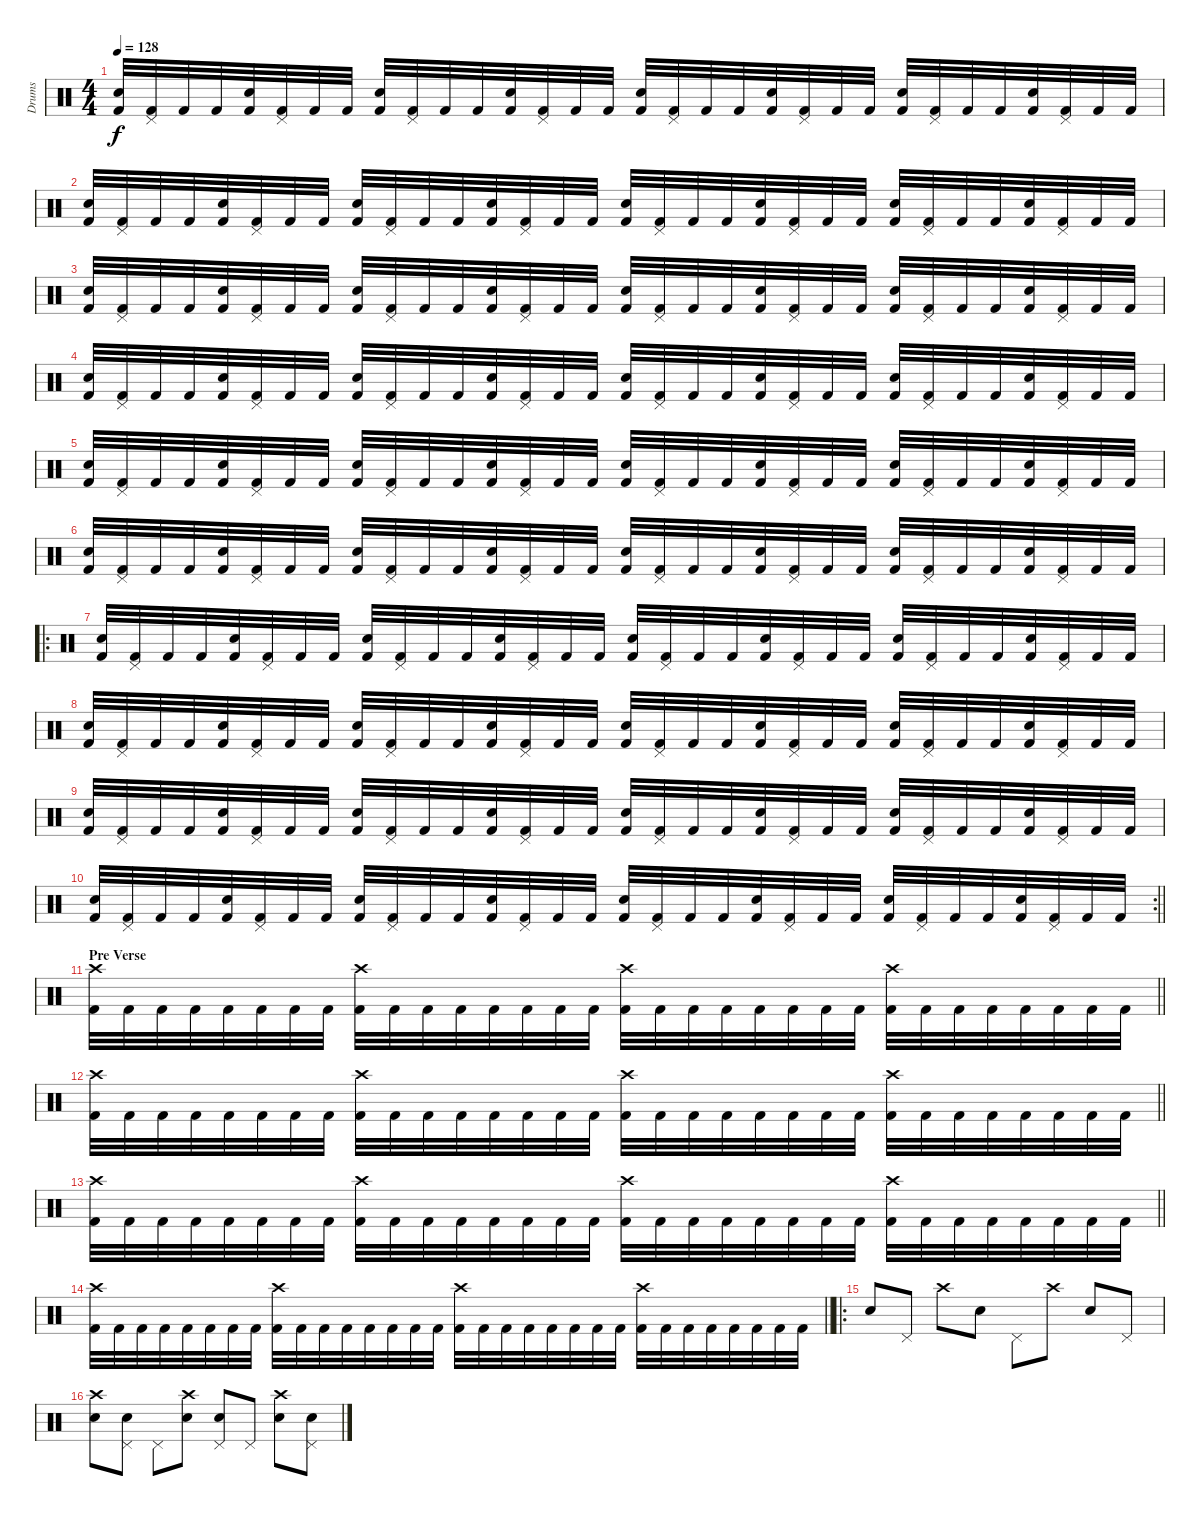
\track ("Drums" "Drums") {instrument percussion}
\staff {score}
\articulation defaults
\ts (4 4)
\tempo 128
\clef neutral
\ks c
("Kick (hit) 2" "Electric Snare (hit)").32{dy f} ("Kick (hit) 2" "Pedal Hi-Hat (hit)").32 "Kick (hit) 2".32 "Kick (hit) 2".32 ("Kick (hit) 2" "Electric Snare (hit)").32 ("Kick (hit) 2" "Pedal Hi-Hat (hit)").32 "Kick (hit) 2".32 "Kick (hit) 2".32 ("Kick (hit) 2" "Electric Snare (hit)").32 ("Kick (hit) 2" "Pedal Hi-Hat (hit)").32 "Kick (hit) 2".32 "Kick (hit) 2".32 ("Kick (hit) 2" "Electric Snare (hit)").32 ("Kick (hit) 2" "Pedal Hi-Hat (hit)").32 "Kick (hit) 2".32 "Kick (hit) 2".32 ("Kick (hit) 2" "Electric Snare (hit)").32 ("Kick (hit) 2" "Pedal Hi-Hat (hit)").32 "Kick (hit) 2".32 "Kick (hit) 2".32 ("Kick (hit) 2" "Electric Snare (hit)").32 ("Kick (hit) 2" "Pedal Hi-Hat (hit)").32 "Kick (hit) 2".32 "Kick (hit) 2".32 ("Kick (hit) 2" "Electric Snare (hit)").32 ("Kick (hit) 2" "Pedal Hi-Hat (hit)").32 "Kick (hit) 2".32 "Kick (hit) 2".32 ("Kick (hit) 2" "Electric Snare (hit)").32 ("Kick (hit) 2" "Pedal Hi-Hat (hit)").32 "Kick (hit) 2".32 "Kick (hit) 2".32 |
("Kick (hit) 2" "Electric Snare (hit)").32 ("Kick (hit) 2" "Pedal Hi-Hat (hit)").32 "Kick (hit) 2".32 "Kick (hit) 2".32 ("Kick (hit) 2" "Electric Snare (hit)").32 ("Kick (hit) 2" "Pedal Hi-Hat (hit)").32 "Kick (hit) 2".32 "Kick (hit) 2".32 ("Kick (hit) 2" "Electric Snare (hit)").32 ("Kick (hit) 2" "Pedal Hi-Hat (hit)").32 "Kick (hit) 2".32 "Kick (hit) 2".32 ("Kick (hit) 2" "Electric Snare (hit)").32 ("Kick (hit) 2" "Pedal Hi-Hat (hit)").32 "Kick (hit) 2".32 "Kick (hit) 2".32 ("Kick (hit) 2" "Electric Snare (hit)").32 ("Kick (hit) 2" "Pedal Hi-Hat (hit)").32 "Kick (hit) 2".32 "Kick (hit) 2".32 ("Kick (hit) 2" "Electric Snare (hit)").32 ("Kick (hit) 2" "Pedal Hi-Hat (hit)").32 "Kick (hit) 2".32 "Kick (hit) 2".32 ("Kick (hit) 2" "Electric Snare (hit)").32 ("Kick (hit) 2" "Pedal Hi-Hat (hit)").32 "Kick (hit) 2".32 "Kick (hit) 2".32 ("Kick (hit) 2" "Electric Snare (hit)").32 ("Kick (hit) 2" "Pedal Hi-Hat (hit)").32 "Kick (hit) 2".32 "Kick (hit) 2".32 |
("Kick (hit) 2" "Electric Snare (hit)").32 ("Kick (hit) 2" "Pedal Hi-Hat (hit)").32 "Kick (hit) 2".32 "Kick (hit) 2".32 ("Kick (hit) 2" "Electric Snare (hit)").32 ("Kick (hit) 2" "Pedal Hi-Hat (hit)").32 "Kick (hit) 2".32 "Kick (hit) 2".32 ("Kick (hit) 2" "Electric Snare (hit)").32 ("Kick (hit) 2" "Pedal Hi-Hat (hit)").32 "Kick (hit) 2".32 "Kick (hit) 2".32 ("Kick (hit) 2" "Electric Snare (hit)").32 ("Kick (hit) 2" "Pedal Hi-Hat (hit)").32 "Kick (hit) 2".32 "Kick (hit) 2".32 ("Kick (hit) 2" "Electric Snare (hit)").32 ("Kick (hit) 2" "Pedal Hi-Hat (hit)").32 "Kick (hit) 2".32 "Kick (hit) 2".32 ("Kick (hit) 2" "Electric Snare (hit)").32 ("Kick (hit) 2" "Pedal Hi-Hat (hit)").32 "Kick (hit) 2".32 "Kick (hit) 2".32 ("Kick (hit) 2" "Electric Snare (hit)").32 ("Kick (hit) 2" "Pedal Hi-Hat (hit)").32 "Kick (hit) 2".32 "Kick (hit) 2".32 ("Kick (hit) 2" "Electric Snare (hit)").32 ("Kick (hit) 2" "Pedal Hi-Hat (hit)").32 "Kick (hit) 2".32 "Kick (hit) 2".32 |
("Kick (hit) 2" "Electric Snare (hit)").32 ("Kick (hit) 2" "Pedal Hi-Hat (hit)").32 "Kick (hit) 2".32 "Kick (hit) 2".32 ("Kick (hit) 2" "Electric Snare (hit)").32 ("Kick (hit) 2" "Pedal Hi-Hat (hit)").32 "Kick (hit) 2".32 "Kick (hit) 2".32 ("Kick (hit) 2" "Electric Snare (hit)").32 ("Kick (hit) 2" "Pedal Hi-Hat (hit)").32 "Kick (hit) 2".32 "Kick (hit) 2".32 ("Kick (hit) 2" "Electric Snare (hit)").32 ("Kick (hit) 2" "Pedal Hi-Hat (hit)").32 "Kick (hit) 2".32 "Kick (hit) 2".32 ("Kick (hit) 2" "Electric Snare (hit)").32 ("Kick (hit) 2" "Pedal Hi-Hat (hit)").32 "Kick (hit) 2".32 "Kick (hit) 2".32 ("Kick (hit) 2" "Electric Snare (hit)").32 ("Kick (hit) 2" "Pedal Hi-Hat (hit)").32 "Kick (hit) 2".32 "Kick (hit) 2".32 ("Kick (hit) 2" "Electric Snare (hit)").32 ("Kick (hit) 2" "Pedal Hi-Hat (hit)").32 "Kick (hit) 2".32 "Kick (hit) 2".32 ("Kick (hit) 2" "Electric Snare (hit)").32 ("Kick (hit) 2" "Pedal Hi-Hat (hit)").32 "Kick (hit) 2".32 "Kick (hit) 2".32 |
("Kick (hit) 2" "Electric Snare (hit)").32 ("Kick (hit) 2" "Pedal Hi-Hat (hit)").32 "Kick (hit) 2".32 "Kick (hit) 2".32 ("Kick (hit) 2" "Electric Snare (hit)").32 ("Kick (hit) 2" "Pedal Hi-Hat (hit)").32 "Kick (hit) 2".32 "Kick (hit) 2".32 ("Kick (hit) 2" "Electric Snare (hit)").32 ("Kick (hit) 2" "Pedal Hi-Hat (hit)").32 "Kick (hit) 2".32 "Kick (hit) 2".32 ("Kick (hit) 2" "Electric Snare (hit)").32 ("Kick (hit) 2" "Pedal Hi-Hat (hit)").32 "Kick (hit) 2".32 "Kick (hit) 2".32 ("Kick (hit) 2" "Electric Snare (hit)").32 ("Kick (hit) 2" "Pedal Hi-Hat (hit)").32 "Kick (hit) 2".32 "Kick (hit) 2".32 ("Kick (hit) 2" "Electric Snare (hit)").32 ("Kick (hit) 2" "Pedal Hi-Hat (hit)").32 "Kick (hit) 2".32 "Kick (hit) 2".32 ("Kick (hit) 2" "Electric Snare (hit)").32 ("Kick (hit) 2" "Pedal Hi-Hat (hit)").32 "Kick (hit) 2".32 "Kick (hit) 2".32 ("Kick (hit) 2" "Electric Snare (hit)").32 ("Kick (hit) 2" "Pedal Hi-Hat (hit)").32 "Kick (hit) 2".32 "Kick (hit) 2".32 |
("Kick (hit) 2" "Electric Snare (hit)").32 ("Kick (hit) 2" "Pedal Hi-Hat (hit)").32 "Kick (hit) 2".32 "Kick (hit) 2".32 ("Kick (hit) 2" "Electric Snare (hit)").32 ("Kick (hit) 2" "Pedal Hi-Hat (hit)").32 "Kick (hit) 2".32 "Kick (hit) 2".32 ("Kick (hit) 2" "Electric Snare (hit)").32 ("Kick (hit) 2" "Pedal Hi-Hat (hit)").32 "Kick (hit) 2".32 "Kick (hit) 2".32 ("Kick (hit) 2" "Electric Snare (hit)").32 ("Kick (hit) 2" "Pedal Hi-Hat (hit)").32 "Kick (hit) 2".32 "Kick (hit) 2".32 ("Kick (hit) 2" "Electric Snare (hit)").32 ("Kick (hit) 2" "Pedal Hi-Hat (hit)").32 "Kick (hit) 2".32 "Kick (hit) 2".32 ("Kick (hit) 2" "Electric Snare (hit)").32 ("Kick (hit) 2" "Pedal Hi-Hat (hit)").32 "Kick (hit) 2".32 "Kick (hit) 2".32 ("Kick (hit) 2" "Electric Snare (hit)").32 ("Kick (hit) 2" "Pedal Hi-Hat (hit)").32 "Kick (hit) 2".32 "Kick (hit) 2".32 ("Kick (hit) 2" "Electric Snare (hit)").32 ("Kick (hit) 2" "Pedal Hi-Hat (hit)").32 "Kick (hit) 2".32 "Kick (hit) 2".32 |
\ro
("Kick (hit) 2" "Electric Snare (hit)").32 ("Kick (hit) 2" "Pedal Hi-Hat (hit)").32 "Kick (hit) 2".32 "Kick (hit) 2".32 ("Kick (hit) 2" "Electric Snare (hit)").32 ("Kick (hit) 2" "Pedal Hi-Hat (hit)").32 "Kick (hit) 2".32 "Kick (hit) 2".32 ("Kick (hit) 2" "Electric Snare (hit)").32 ("Kick (hit) 2" "Pedal Hi-Hat (hit)").32 "Kick (hit) 2".32 "Kick (hit) 2".32 ("Kick (hit) 2" "Electric Snare (hit)").32 ("Kick (hit) 2" "Pedal Hi-Hat (hit)").32 "Kick (hit) 2".32 "Kick (hit) 2".32 ("Kick (hit) 2" "Electric Snare (hit)").32 ("Kick (hit) 2" "Pedal Hi-Hat (hit)").32 "Kick (hit) 2".32 "Kick (hit) 2".32 ("Kick (hit) 2" "Electric Snare (hit)").32 ("Kick (hit) 2" "Pedal Hi-Hat (hit)").32 "Kick (hit) 2".32 "Kick (hit) 2".32 ("Kick (hit) 2" "Electric Snare (hit)").32 ("Kick (hit) 2" "Pedal Hi-Hat (hit)").32 "Kick (hit) 2".32 "Kick (hit) 2".32 ("Kick (hit) 2" "Electric Snare (hit)").32 ("Kick (hit) 2" "Pedal Hi-Hat (hit)").32 "Kick (hit) 2".32 "Kick (hit) 2".32 |
("Kick (hit) 2" "Electric Snare (hit)").32 ("Kick (hit) 2" "Pedal Hi-Hat (hit)").32 "Kick (hit) 2".32 "Kick (hit) 2".32 ("Kick (hit) 2" "Electric Snare (hit)").32 ("Kick (hit) 2" "Pedal Hi-Hat (hit)").32 "Kick (hit) 2".32 "Kick (hit) 2".32 ("Kick (hit) 2" "Electric Snare (hit)").32 ("Kick (hit) 2" "Pedal Hi-Hat (hit)").32 "Kick (hit) 2".32 "Kick (hit) 2".32 ("Kick (hit) 2" "Electric Snare (hit)").32 ("Kick (hit) 2" "Pedal Hi-Hat (hit)").32 "Kick (hit) 2".32 "Kick (hit) 2".32 ("Kick (hit) 2" "Electric Snare (hit)").32 ("Kick (hit) 2" "Pedal Hi-Hat (hit)").32 "Kick (hit) 2".32 "Kick (hit) 2".32 ("Kick (hit) 2" "Electric Snare (hit)").32 ("Kick (hit) 2" "Pedal Hi-Hat (hit)").32 "Kick (hit) 2".32 "Kick (hit) 2".32 ("Kick (hit) 2" "Electric Snare (hit)").32 ("Kick (hit) 2" "Pedal Hi-Hat (hit)").32 "Kick (hit) 2".32 "Kick (hit) 2".32 ("Kick (hit) 2" "Electric Snare (hit)").32 ("Kick (hit) 2" "Pedal Hi-Hat (hit)").32 "Kick (hit) 2".32 "Kick (hit) 2".32 |
("Kick (hit) 2" "Electric Snare (hit)").32 ("Kick (hit) 2" "Pedal Hi-Hat (hit)").32 "Kick (hit) 2".32 "Kick (hit) 2".32 ("Kick (hit) 2" "Electric Snare (hit)").32 ("Kick (hit) 2" "Pedal Hi-Hat (hit)").32 "Kick (hit) 2".32 "Kick (hit) 2".32 ("Kick (hit) 2" "Electric Snare (hit)").32 ("Kick (hit) 2" "Pedal Hi-Hat (hit)").32 "Kick (hit) 2".32 "Kick (hit) 2".32 ("Kick (hit) 2" "Electric Snare (hit)").32 ("Kick (hit) 2" "Pedal Hi-Hat (hit)").32 "Kick (hit) 2".32 "Kick (hit) 2".32 ("Kick (hit) 2" "Electric Snare (hit)").32 ("Kick (hit) 2" "Pedal Hi-Hat (hit)").32 "Kick (hit) 2".32 "Kick (hit) 2".32 ("Kick (hit) 2" "Electric Snare (hit)").32 ("Kick (hit) 2" "Pedal Hi-Hat (hit)").32 "Kick (hit) 2".32 "Kick (hit) 2".32 ("Kick (hit) 2" "Electric Snare (hit)").32 ("Kick (hit) 2" "Pedal Hi-Hat (hit)").32 "Kick (hit) 2".32 "Kick (hit) 2".32 ("Kick (hit) 2" "Electric Snare (hit)").32 ("Kick (hit) 2" "Pedal Hi-Hat (hit)").32 "Kick (hit) 2".32 "Kick (hit) 2".32 |
\rc 2
\barLineRight lightlight
("Kick (hit) 2" "Electric Snare (hit)").32 ("Kick (hit) 2" "Pedal Hi-Hat (hit)").32 "Kick (hit) 2".32 "Kick (hit) 2".32 ("Kick (hit) 2" "Electric Snare (hit)").32 ("Kick (hit) 2" "Pedal Hi-Hat (hit)").32 "Kick (hit) 2".32 "Kick (hit) 2".32 ("Kick (hit) 2" "Electric Snare (hit)").32 ("Kick (hit) 2" "Pedal Hi-Hat (hit)").32 "Kick (hit) 2".32 "Kick (hit) 2".32 ("Kick (hit) 2" "Electric Snare (hit)").32 ("Kick (hit) 2" "Pedal Hi-Hat (hit)").32 "Kick (hit) 2".32 "Kick (hit) 2".32 ("Kick (hit) 2" "Electric Snare (hit)").32 ("Kick (hit) 2" "Pedal Hi-Hat (hit)").32 "Kick (hit) 2".32 "Kick (hit) 2".32 ("Kick (hit) 2" "Electric Snare (hit)").32 ("Kick (hit) 2" "Pedal Hi-Hat (hit)").32 "Kick (hit) 2".32 "Kick (hit) 2".32 ("Kick (hit) 2" "Electric Snare (hit)").32 ("Kick (hit) 2" "Pedal Hi-Hat (hit)").32 "Kick (hit) 2".32 "Kick (hit) 2".32 ("Kick (hit) 2" "Electric Snare (hit)").32 ("Kick (hit) 2" "Pedal Hi-Hat (hit)").32 "Kick (hit) 2".32 "Kick (hit) 2".32 |
\section ("" "Pre Verse")
\barLineRight lightlight
("Kick (hit) 2" "Crash high (hit)").32 "Kick (hit) 2".32 "Kick (hit) 2".32 "Kick (hit) 2".32 "Kick (hit) 2".32 "Kick (hit) 2".32 "Kick (hit) 2".32 "Kick (hit) 2".32 ("Kick (hit) 2" "Crash high (hit)").32 "Kick (hit) 2".32 "Kick (hit) 2".32 "Kick (hit) 2".32 "Kick (hit) 2".32 "Kick (hit) 2".32 "Kick (hit) 2".32 "Kick (hit) 2".32 ("Kick (hit) 2" "Crash high (hit)").32 "Kick (hit) 2".32 "Kick (hit) 2".32 "Kick (hit) 2".32 "Kick (hit) 2".32 "Kick (hit) 2".32 "Kick (hit) 2".32 "Kick (hit) 2".32 ("Kick (hit) 2" "Crash high (hit)").32 "Kick (hit) 2".32 "Kick (hit) 2".32 "Kick (hit) 2".32 "Kick (hit) 2".32 "Kick (hit) 2".32 "Kick (hit) 2".32 "Kick (hit) 2".32 |
\barLineRight lightlight
("Kick (hit) 2" "Crash high (hit)").32 "Kick (hit) 2".32 "Kick (hit) 2".32 "Kick (hit) 2".32 "Kick (hit) 2".32 "Kick (hit) 2".32 "Kick (hit) 2".32 "Kick (hit) 2".32 ("Kick (hit) 2" "Crash high (hit)").32 "Kick (hit) 2".32 "Kick (hit) 2".32 "Kick (hit) 2".32 "Kick (hit) 2".32 "Kick (hit) 2".32 "Kick (hit) 2".32 "Kick (hit) 2".32 ("Kick (hit) 2" "Crash high (hit)").32 "Kick (hit) 2".32 "Kick (hit) 2".32 "Kick (hit) 2".32 "Kick (hit) 2".32 "Kick (hit) 2".32 "Kick (hit) 2".32 "Kick (hit) 2".32 ("Kick (hit) 2" "Crash high (hit)").32 "Kick (hit) 2".32 "Kick (hit) 2".32 "Kick (hit) 2".32 "Kick (hit) 2".32 "Kick (hit) 2".32 "Kick (hit) 2".32 "Kick (hit) 2".32 |
\barLineRight lightlight
("Kick (hit) 2" "Crash high (hit)").32 "Kick (hit) 2".32 "Kick (hit) 2".32 "Kick (hit) 2".32 "Kick (hit) 2".32 "Kick (hit) 2".32 "Kick (hit) 2".32 "Kick (hit) 2".32 ("Kick (hit) 2" "Crash high (hit)").32 "Kick (hit) 2".32 "Kick (hit) 2".32 "Kick (hit) 2".32 "Kick (hit) 2".32 "Kick (hit) 2".32 "Kick (hit) 2".32 "Kick (hit) 2".32 ("Kick (hit) 2" "Crash high (hit)").32 "Kick (hit) 2".32 "Kick (hit) 2".32 "Kick (hit) 2".32 "Kick (hit) 2".32 "Kick (hit) 2".32 "Kick (hit) 2".32 "Kick (hit) 2".32 ("Kick (hit) 2" "Crash high (hit)").32 "Kick (hit) 2".32 "Kick (hit) 2".32 "Kick (hit) 2".32 "Kick (hit) 2".32 "Kick (hit) 2".32 "Kick (hit) 2".32 "Kick (hit) 2".32 |
\barLineRight lightlight
("Kick (hit) 2" "Crash high (hit)").32 "Kick (hit) 2".32 "Kick (hit) 2".32 "Kick (hit) 2".32 "Kick (hit) 2".32 "Kick (hit) 2".32 "Kick (hit) 2".32 "Kick (hit) 2".32 ("Kick (hit) 2" "Crash high (hit)").32 "Kick (hit) 2".32 "Kick (hit) 2".32 "Kick (hit) 2".32 "Kick (hit) 2".32 "Kick (hit) 2".32 "Kick (hit) 2".32 "Kick (hit) 2".32 ("Kick (hit) 2" "Crash high (hit)").32 "Kick (hit) 2".32 "Kick (hit) 2".32 "Kick (hit) 2".32 "Kick (hit) 2".32 "Kick (hit) 2".32 "Kick (hit) 2".32 "Kick (hit) 2".32 ("Kick (hit) 2" "Crash high (hit)").32 "Kick (hit) 2".32 "Kick (hit) 2".32 "Kick (hit) 2".32 "Kick (hit) 2".32 "Kick (hit) 2".32 "Kick (hit) 2".32 "Kick (hit) 2".32 |
\ro "Electric Snare (hit)".8 "Pedal Hi-Hat (hit)".8 "Crash high (hit)".8 "Electric Snare (hit)".8 "Pedal Hi-Hat (hit)".8 "Crash high (hit)".8 "Electric Snare (hit)".8 "Pedal Hi-Hat (hit)".8
|
("Crash high (hit)" "Electric Snare (hit)").8 ("Electric Snare (hit)" "Pedal Hi-Hat (hit)").8 "Pedal Hi-Hat (hit)".8 ("Crash high (hit)" "Electric Snare (hit)").8 ("Electric Snare (hit)" "Pedal Hi-Hat (hit)").8 "Pedal Hi-Hat (hit)".8 ("Crash high (hit)" "Electric Snare (hit)").8 ("Electric Snare (hit)" "Pedal Hi-Hat (hit)").8
